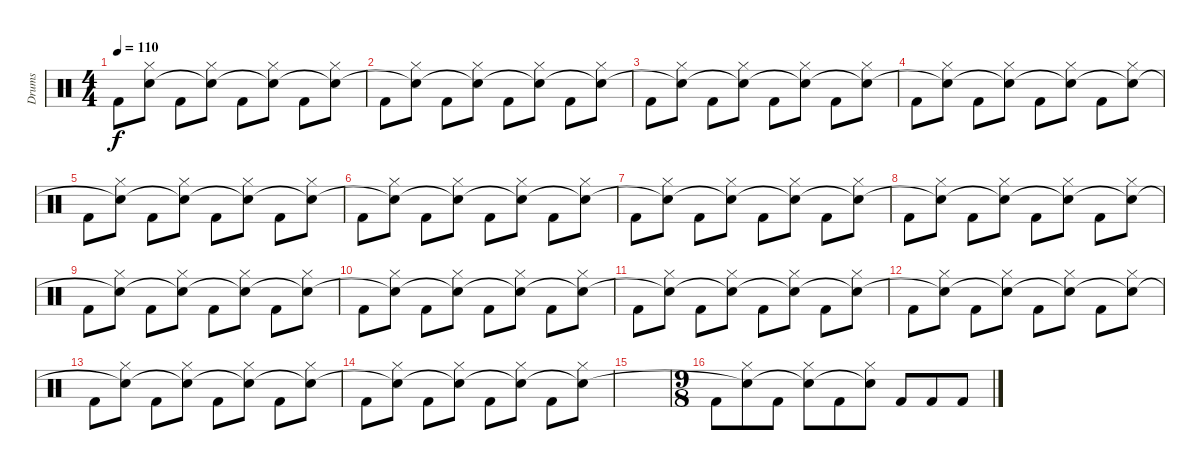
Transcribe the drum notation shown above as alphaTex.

\track ("Drums" "Drums") {instrument percussion}
\staff {score}
\articulation defaults
\ts (4 4)
\tempo 110
\clef neutral
\ks c "Kick (hit) 2".8{dy f}
("Hi-Hat (closed)" "Snare (hit)").8 "Kick (hit) 2".8 ("Hi-Hat (closed)" "Snare (hit)"{t}).8 "Kick (hit) 2".8 ("Hi-Hat (closed)" "Snare (hit)"{t}).8 "Kick (hit) 2".8 ("Hi-Hat (closed)" "Snare (hit)"{t}).8 |
"Kick (hit) 2".8 ("Hi-Hat (closed)" "Snare (hit)"{t}).8 "Kick (hit) 2".8 ("Hi-Hat (closed)" "Snare (hit)"{t}).8 "Kick (hit) 2".8 ("Hi-Hat (closed)" "Snare (hit)"{t}).8 "Kick (hit) 2".8 ("Hi-Hat (closed)" "Snare (hit)"{t}).8 |
"Kick (hit) 2".8 ("Hi-Hat (closed)" "Snare (hit)"{t}).8 "Kick (hit) 2".8 ("Hi-Hat (closed)" "Snare (hit)"{t}).8 "Kick (hit) 2".8 ("Hi-Hat (closed)" "Snare (hit)"{t}).8 "Kick (hit) 2".8 ("Hi-Hat (closed)" "Snare (hit)"{t}).8 |
"Kick (hit) 2".8 ("Hi-Hat (closed)" "Snare (hit)"{t}).8 "Kick (hit) 2".8 ("Hi-Hat (closed)" "Snare (hit)"{t}).8 "Kick (hit) 2".8 ("Hi-Hat (closed)" "Snare (hit)"{t}).8 "Kick (hit) 2".8 ("Hi-Hat (closed)" "Snare (hit)"{t}).8 |
"Kick (hit) 2".8 ("Hi-Hat (closed)" "Snare (hit)"{t}).8 "Kick (hit) 2".8 ("Hi-Hat (closed)" "Snare (hit)"{t}).8 "Kick (hit) 2".8 ("Hi-Hat (closed)" "Snare (hit)"{t}).8 "Kick (hit) 2".8 ("Hi-Hat (closed)" "Snare (hit)"{t}).8 |
"Kick (hit) 2".8 ("Hi-Hat (closed)" "Snare (hit)"{t}).8 "Kick (hit) 2".8 ("Hi-Hat (closed)" "Snare (hit)"{t}).8 "Kick (hit) 2".8 ("Hi-Hat (closed)" "Snare (hit)"{t}).8 "Kick (hit) 2".8 ("Hi-Hat (closed)" "Snare (hit)"{t}).8 |
"Kick (hit) 2".8 ("Hi-Hat (closed)" "Snare (hit)"{t}).8 "Kick (hit) 2".8 ("Hi-Hat (closed)" "Snare (hit)"{t}).8 "Kick (hit) 2".8 ("Hi-Hat (closed)" "Snare (hit)"{t}).8 "Kick (hit) 2".8 ("Hi-Hat (closed)" "Snare (hit)"{t}).8 |
"Kick (hit) 2".8 ("Hi-Hat (closed)" "Snare (hit)"{t}).8 "Kick (hit) 2".8 ("Hi-Hat (closed)" "Snare (hit)"{t}).8 "Kick (hit) 2".8 ("Hi-Hat (closed)" "Snare (hit)"{t}).8 "Kick (hit) 2".8 ("Hi-Hat (closed)" "Snare (hit)"{t}).8 |
"Kick (hit) 2".8 ("Hi-Hat (closed)" "Snare (hit)"{t}).8 "Kick (hit) 2".8 ("Hi-Hat (closed)" "Snare (hit)"{t}).8 "Kick (hit) 2".8 ("Hi-Hat (closed)" "Snare (hit)"{t}).8 "Kick (hit) 2".8 ("Hi-Hat (closed)" "Snare (hit)"{t}).8 |
"Kick (hit) 2".8 ("Hi-Hat (closed)" "Snare (hit)"{t}).8 "Kick (hit) 2".8 ("Hi-Hat (closed)" "Snare (hit)"{t}).8 "Kick (hit) 2".8 ("Hi-Hat (closed)" "Snare (hit)"{t}).8 "Kick (hit) 2".8 ("Hi-Hat (closed)" "Snare (hit)"{t}).8 |
"Kick (hit) 2".8 ("Hi-Hat (closed)" "Snare (hit)"{t}).8 "Kick (hit) 2".8 ("Hi-Hat (closed)" "Snare (hit)"{t}).8 "Kick (hit) 2".8 ("Hi-Hat (closed)" "Snare (hit)"{t}).8 "Kick (hit) 2".8 ("Hi-Hat (closed)" "Snare (hit)"{t}).8 |
"Kick (hit) 2".8 ("Hi-Hat (closed)" "Snare (hit)"{t}).8 "Kick (hit) 2".8 ("Hi-Hat (closed)" "Snare (hit)"{t}).8 "Kick (hit) 2".8 ("Hi-Hat (closed)" "Snare (hit)"{t}).8 "Kick (hit) 2".8 ("Hi-Hat (closed)" "Snare (hit)"{t}).8 |
"Kick (hit) 2".8 ("Hi-Hat (closed)" "Snare (hit)"{t}).8 "Kick (hit) 2".8 ("Hi-Hat (closed)" "Snare (hit)"{t}).8 "Kick (hit) 2".8 ("Hi-Hat (closed)" "Snare (hit)"{t}).8 "Kick (hit) 2".8 ("Hi-Hat (closed)" "Snare (hit)"{t}).8 |
"Kick (hit) 2".8 ("Hi-Hat (closed)" "Snare (hit)"{t}).8 "Kick (hit) 2".8 ("Hi-Hat (closed)" "Snare (hit)"{t}).8 "Kick (hit) 2".8 ("Hi-Hat (closed)" "Snare (hit)"{t}).8 "Kick (hit) 2".8 ("Hi-Hat (closed)" "Snare (hit)"{t}).8 |
|
\ts (9 8)
"Kick (hit) 2".8 ("Hi-Hat (closed)" "Snare (hit)"{t}).8 "Kick (hit) 2".8 ("Hi-Hat (closed)" "Snare (hit)"{t}).8 "Kick (hit) 2".8 ("Hi-Hat (closed)" "Snare (hit)"{t}).8 "Kick (hit) 2".8 "Kick (hit) 2".8 "Kick (hit) 2".8
